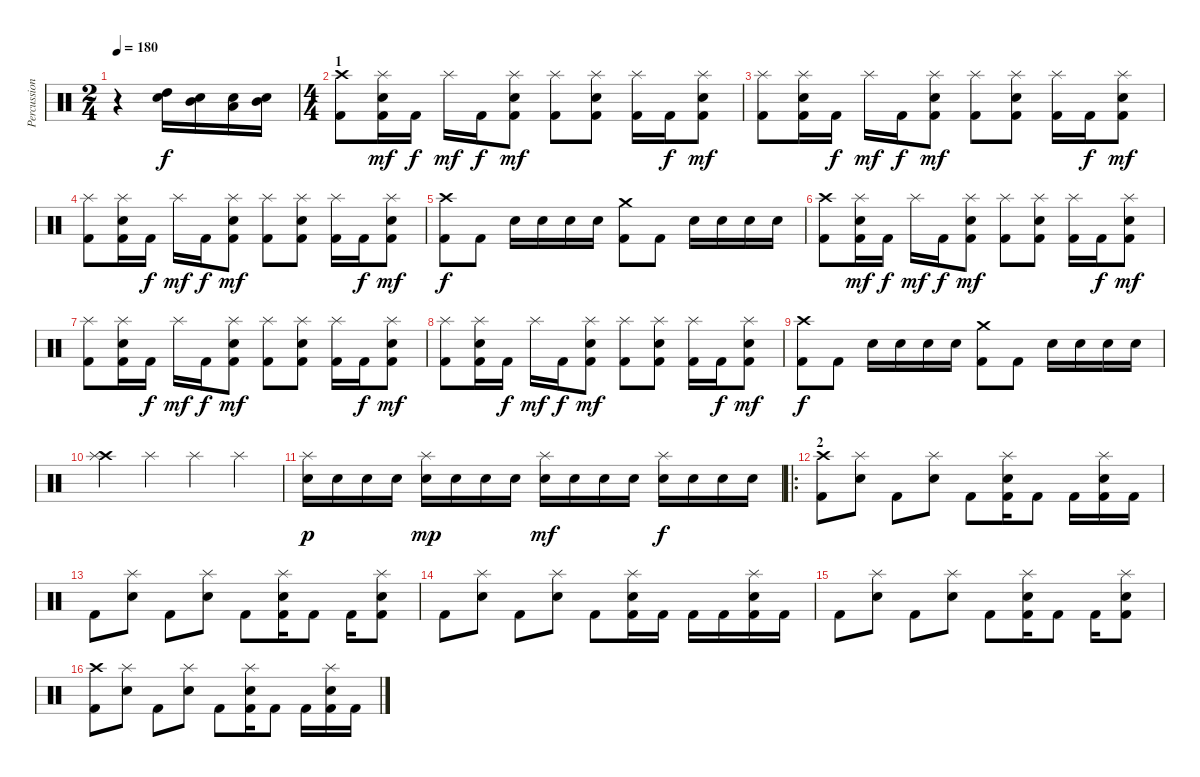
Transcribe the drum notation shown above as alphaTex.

\track ("Percussion" "Percussion") {instrument percussion}
\staff {score}
\articulation defaults
\ts (2 4)
\tempo 180
\clef neutral
\ks c
r.4{dy f} ("High Tom (hit)" "Snare (hit) 2").16 ("Mid Tom (hit)" "Snare (hit) 2").16 ("Low Tom (hit)" "Snare (hit) 2").16 ("Mid Tom (hit)" "Snare (hit) 2").16 |
\ts (4 4)
\section ("" "1")
("Crash high (hit)" "Kick (hit) 2").8 ("Splash (hit)" "Snare (hit) 2" "Kick (hit) 2").16{dy mf} "Kick (hit) 2".16{dy f} "Splash (hit)".16{dy mf} "Kick (hit) 2".16{dy f} ("Splash (hit)" "Snare (hit) 2" "Kick (hit) 2").8{dy mf} ("Splash (hit)" "Kick (hit) 2").8 ("Splash (hit)" "Snare (hit) 2" "Kick (hit) 2").8 ("Splash (hit)" "Kick (hit) 2").16 "Kick (hit) 2".16{dy f} ("Splash (hit)" "Snare (hit) 2" "Kick (hit) 2").8{dy mf} |
("Splash (hit)" "Kick (hit) 2").8 ("Splash (hit)" "Snare (hit) 2" "Kick (hit) 2").16 "Kick (hit) 2".16{dy f} "Splash (hit)".16{dy mf} "Kick (hit) 2".16{dy f} ("Splash (hit)" "Snare (hit) 2" "Kick (hit) 2").8{dy mf} ("Splash (hit)" "Kick (hit) 2").8 ("Splash (hit)" "Snare (hit) 2" "Kick (hit) 2").8 ("Splash (hit)" "Kick (hit) 2").16 "Kick (hit) 2".16{dy f} ("Splash (hit)" "Snare (hit) 2" "Kick (hit) 2").8{dy mf} |
("Splash (hit)" "Kick (hit) 2").8 ("Splash (hit)" "Snare (hit) 2" "Kick (hit) 2").16 "Kick (hit) 2".16{dy f} "Splash (hit)".16{dy mf} "Kick (hit) 2".16{dy f} ("Splash (hit)" "Snare (hit) 2" "Kick (hit) 2").8{dy mf} ("Splash (hit)" "Kick (hit) 2").8 ("Splash (hit)" "Snare (hit) 2" "Kick (hit) 2").8 ("Splash (hit)" "Kick (hit) 2").16 "Kick (hit) 2".16{dy f} ("Splash (hit)" "Snare (hit) 2" "Kick (hit) 2").8{dy mf} |
("Crash high (hit)" "Kick (hit) 2").8{dy f} "Kick (hit) 2".8 "Snare (hit) 2".16 "Snare (hit) 2".16 "Snare (hit) 2".16 "Snare (hit) 2".16 ("Crash medium (hit)" "Kick (hit) 2").8 "Kick (hit) 2".8 "Snare (hit) 2".16 "Snare (hit) 2".16 "Snare (hit) 2".16 "Snare (hit) 2".16 |
("Crash high (hit)" "Kick (hit) 2").8 ("Splash (hit)" "Snare (hit) 2" "Kick (hit) 2").16{dy mf} "Kick (hit) 2".16{dy f} "Splash (hit)".16{dy mf} "Kick (hit) 2".16{dy f} ("Splash (hit)" "Snare (hit) 2" "Kick (hit) 2").8{dy mf} ("Splash (hit)" "Kick (hit) 2").8 ("Splash (hit)" "Snare (hit) 2" "Kick (hit) 2").8 ("Splash (hit)" "Kick (hit) 2").16 "Kick (hit) 2".16{dy f} ("Splash (hit)" "Snare (hit) 2" "Kick (hit) 2").8{dy mf} |
("Splash (hit)" "Kick (hit) 2").8 ("Splash (hit)" "Snare (hit) 2" "Kick (hit) 2").16 "Kick (hit) 2".16{dy f} "Splash (hit)".16{dy mf} "Kick (hit) 2".16{dy f} ("Splash (hit)" "Snare (hit) 2" "Kick (hit) 2").8{dy mf} ("Splash (hit)" "Kick (hit) 2").8 ("Splash (hit)" "Snare (hit) 2" "Kick (hit) 2").8 ("Splash (hit)" "Kick (hit) 2").16 "Kick (hit) 2".16{dy f} ("Splash (hit)" "Snare (hit) 2" "Kick (hit) 2").8{dy mf} |
("Splash (hit)" "Kick (hit) 2").8 ("Splash (hit)" "Snare (hit) 2" "Kick (hit) 2").16 "Kick (hit) 2".16{dy f} "Splash (hit)".16{dy mf} "Kick (hit) 2".16{dy f} ("Splash (hit)" "Snare (hit) 2" "Kick (hit) 2").8{dy mf} ("Splash (hit)" "Kick (hit) 2").8 ("Splash (hit)" "Snare (hit) 2" "Kick (hit) 2").8 ("Splash (hit)" "Kick (hit) 2").16 "Kick (hit) 2".16{dy f} ("Splash (hit)" "Snare (hit) 2" "Kick (hit) 2").8{dy mf} |
("Crash high (hit)" "Kick (hit) 2").8{dy f} "Kick (hit) 2".8 "Snare (hit) 2".16 "Snare (hit) 2".16 "Snare (hit) 2".16 "Snare (hit) 2".16 ("Crash medium (hit)" "Kick (hit) 2").8 "Kick (hit) 2".8 "Snare (hit) 2".16 "Snare (hit) 2".16 "Snare (hit) 2".16 "Snare (hit) 2".16 |
("Crash high (hit)" "Splash (hit)").4 "Splash (hit)".4 "Splash (hit)".4 "Splash (hit)".4 |
("Splash (hit)" "Snare (hit) 2").16{dy p} "Snare (hit) 2".16 "Snare (hit) 2".16 "Snare (hit) 2".16 ("Splash (hit)" "Snare (hit) 2").16{dy mp} "Snare (hit) 2".16 "Snare (hit) 2".16 "Snare (hit) 2".16 ("Splash (hit)" "Snare (hit) 2").16{dy mf} "Snare (hit) 2".16 "Snare (hit) 2".16 "Snare (hit) 2".16 ("Splash (hit)" "Snare (hit) 2").16{dy f} "Snare (hit) 2".16 "Snare (hit) 2".16 "Snare (hit) 2".16 |
\ro
\section ("" "2")
("Crash high (hit)" "Kick (hit) 2").8 ("Splash (hit)" "Snare (hit) 2").8 "Kick (hit) 2".8 ("Splash (hit)" "Snare (hit) 2").8 "Kick (hit) 2".8 ("Splash (hit)" "Snare (hit) 2" "Kick (hit) 2").16 "Kick (hit) 2".8 "Kick (hit) 2".16 ("Splash (hit)" "Snare (hit) 2" "Kick (hit) 2").16 "Kick (hit) 2".16 |
"Kick (hit) 2".8 ("Splash (hit)" "Snare (hit) 2").8 "Kick (hit) 2".8 ("Splash (hit)" "Snare (hit) 2").8 "Kick (hit) 2".8 ("Splash (hit)" "Snare (hit) 2" "Kick (hit) 2").16 "Kick (hit) 2".8 "Kick (hit) 2".16 ("Splash (hit)" "Snare (hit) 2" "Kick (hit) 2").8 |
"Kick (hit) 2".8 ("Splash (hit)" "Snare (hit) 2").8 "Kick (hit) 2".8 ("Splash (hit)" "Snare (hit) 2").8 "Kick (hit) 2".8 ("Splash (hit)" "Snare (hit) 2" "Kick (hit) 2").16 "Kick (hit) 2".16 "Kick (hit) 2".16 "Kick (hit) 2".16 ("Splash (hit)" "Snare (hit) 2" "Kick (hit) 2").16 "Kick (hit) 2".16 |
"Kick (hit) 2".8 ("Splash (hit)" "Snare (hit) 2").8 "Kick (hit) 2".8 ("Splash (hit)" "Snare (hit) 2").8 "Kick (hit) 2".8 ("Splash (hit)" "Snare (hit) 2" "Kick (hit) 2").16 "Kick (hit) 2".8 "Kick (hit) 2".16 ("Splash (hit)" "Snare (hit) 2" "Kick (hit) 2").8 |
("Crash high (hit)" "Kick (hit) 2").8 ("Splash (hit)" "Snare (hit) 2").8 "Kick (hit) 2".8 ("Splash (hit)" "Snare (hit) 2").8 "Kick (hit) 2".8 ("Splash (hit)" "Snare (hit) 2" "Kick (hit) 2").16 "Kick (hit) 2".8 "Kick (hit) 2".16 ("Splash (hit)" "Snare (hit) 2" "Kick (hit) 2").16 "Kick (hit) 2".16
